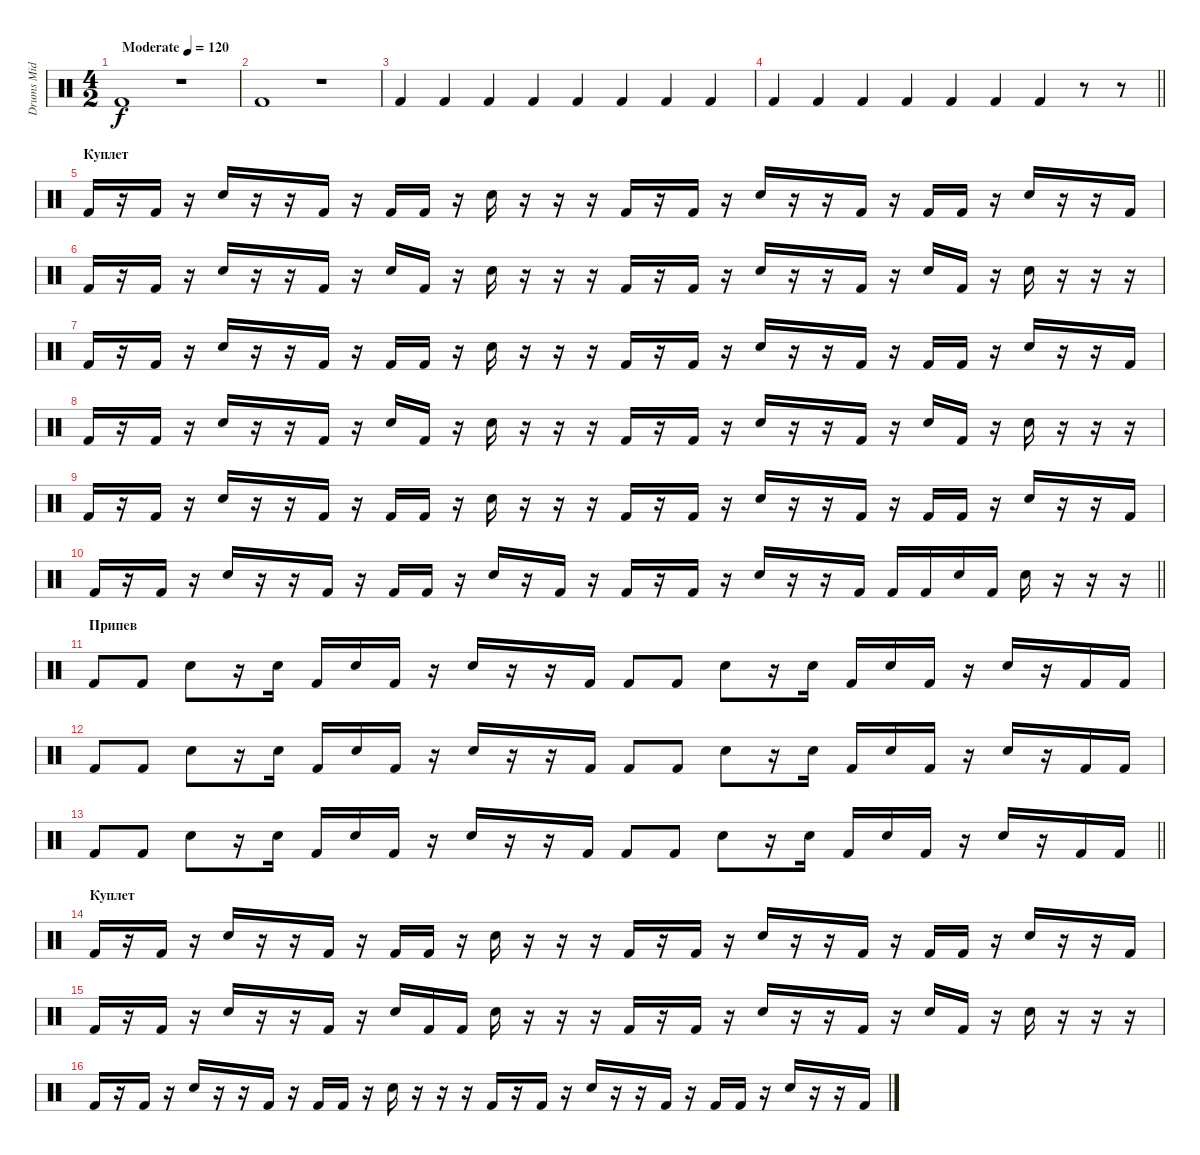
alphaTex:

\track ("Drums Mid" "Drums Mid") {instrument percussion}
\staff {score}
\articulation defaults
\ts (4 2)
\tempo (120 "Moderate")
\clef neutral
\ks c "Kick (hit) 2".1{dy f}
r.1 |
"Kick (hit) 2".1 r.1 |
"Kick (hit) 2".4 "Kick (hit) 2".4 "Kick (hit) 2".4 "Kick (hit) 2".4 "Kick (hit) 2".4 "Kick (hit) 2".4 "Kick (hit) 2".4 "Kick (hit) 2".4 |
\barLineRight lightlight "Kick (hit) 2".4 "Kick (hit) 2".4 "Kick (hit) 2".4 "Kick (hit) 2".4 "Kick (hit) 2".4 "Kick (hit) 2".4 "Kick (hit) 2".4
r.8 r.8 |
\section ("" "Куплет")
"Kick (hit) 2".16 r.16 "Kick (hit) 2".16 r.16 "Snare (hit) 2".16 r.16 r.16 "Kick (hit) 2".16 r.16 "Kick (hit) 2".16 "Kick (hit) 2".16 r.16 "Snare (hit) 2".16 r.16 r.16 r.16 "Kick (hit) 2".16 r.16 "Kick (hit) 2".16 r.16 "Snare (hit) 2".16 r.16 r.16 "Kick (hit) 2".16 r.16 "Kick (hit) 2".16 "Kick (hit) 2".16 r.16 "Snare (hit) 2".16 r.16 r.16 "Kick (hit) 2".16 |
"Kick (hit) 2".16 r.16 "Kick (hit) 2".16 r.16 "Snare (hit) 2".16 r.16 r.16 "Kick (hit) 2".16 r.16 "Snare (hit) 2".16 "Kick (hit) 2".16 r.16 "Snare (hit) 2".16 r.16 r.16 r.16 "Kick (hit) 2".16 r.16 "Kick (hit) 2".16 r.16 "Snare (hit) 2".16 r.16 r.16 "Kick (hit) 2".16 r.16 "Snare (hit) 2".16 "Kick (hit) 2".16 r.16 "Snare (hit) 2".16 r.16 r.16 r.16 |
"Kick (hit) 2".16 r.16 "Kick (hit) 2".16 r.16 "Snare (hit) 2".16 r.16 r.16 "Kick (hit) 2".16 r.16 "Kick (hit) 2".16 "Kick (hit) 2".16 r.16 "Snare (hit) 2".16 r.16 r.16 r.16 "Kick (hit) 2".16 r.16 "Kick (hit) 2".16 r.16 "Snare (hit) 2".16 r.16 r.16 "Kick (hit) 2".16 r.16 "Kick (hit) 2".16 "Kick (hit) 2".16 r.16 "Snare (hit) 2".16 r.16 r.16 "Kick (hit) 2".16 |
"Kick (hit) 2".16 r.16 "Kick (hit) 2".16 r.16 "Snare (hit) 2".16 r.16 r.16 "Kick (hit) 2".16 r.16 "Snare (hit) 2".16 "Kick (hit) 2".16 r.16 "Snare (hit) 2".16 r.16 r.16 r.16 "Kick (hit) 2".16 r.16 "Kick (hit) 2".16 r.16 "Snare (hit) 2".16 r.16 r.16 "Kick (hit) 2".16 r.16 "Snare (hit) 2".16 "Kick (hit) 2".16 r.16 "Snare (hit) 2".16 r.16 r.16 r.16 |
"Kick (hit) 2".16 r.16 "Kick (hit) 2".16 r.16 "Snare (hit) 2".16 r.16 r.16 "Kick (hit) 2".16 r.16 "Kick (hit) 2".16 "Kick (hit) 2".16 r.16 "Snare (hit) 2".16 r.16 r.16 r.16 "Kick (hit) 2".16 r.16 "Kick (hit) 2".16 r.16 "Snare (hit) 2".16 r.16 r.16 "Kick (hit) 2".16 r.16 "Kick (hit) 2".16 "Kick (hit) 2".16 r.16 "Snare (hit) 2".16 r.16 r.16 "Kick (hit) 2".16 |
\barLineRight lightlight "Kick (hit) 2".16
r.16 "Kick (hit) 2".16 r.16 "Snare (hit) 2".16 r.16 r.16 "Kick (hit) 2".16 r.16 "Kick (hit) 2".16 "Kick (hit) 2".16 r.16 "Snare (hit) 2".16 r.16 "Kick (hit) 2".16 r.16 "Kick (hit) 2".16 r.16 "Kick (hit) 2".16 r.16 "Snare (hit) 2".16 r.16 r.16 "Kick (hit) 2".16 "Kick (hit) 2".16 "Kick (hit) 2".16 "Snare (hit) 2".16 "Kick (hit) 2".16 "Snare (hit) 2".16 r.16 r.16 r.16 |
\section ("" "Припев")
"Kick (hit) 2".8 "Kick (hit) 2".8 "Snare (hit) 2".8 r.16 "Snare (hit) 2".16 "Kick (hit) 2".16 "Snare (hit) 2".16 "Kick (hit) 2".16 r.16 "Snare (hit) 2".16 r.16 r.16 "Kick (hit) 2".16 "Kick (hit) 2".8 "Kick (hit) 2".8 "Snare (hit) 2".8 r.16 "Snare (hit) 2".16 "Kick (hit) 2".16 "Snare (hit) 2".16 "Kick (hit) 2".16 r.16 "Snare (hit) 2".16 r.16 "Kick (hit) 2".16 "Kick (hit) 2".16 |
"Kick (hit) 2".8 "Kick (hit) 2".8 "Snare (hit) 2".8 r.16 "Snare (hit) 2".16 "Kick (hit) 2".16 "Snare (hit) 2".16 "Kick (hit) 2".16 r.16 "Snare (hit) 2".16 r.16 r.16 "Kick (hit) 2".16 "Kick (hit) 2".8 "Kick (hit) 2".8 "Snare (hit) 2".8 r.16 "Snare (hit) 2".16 "Kick (hit) 2".16 "Snare (hit) 2".16 "Kick (hit) 2".16 r.16 "Snare (hit) 2".16 r.16 "Kick (hit) 2".16 "Kick (hit) 2".16 |
\barLineRight lightlight "Kick (hit) 2".8 "Kick (hit) 2".8 "Snare (hit) 2".8
r.16 "Snare (hit) 2".16 "Kick (hit) 2".16 "Snare (hit) 2".16 "Kick (hit) 2".16 r.16 "Snare (hit) 2".16 r.16 r.16 "Kick (hit) 2".16 "Kick (hit) 2".8 "Kick (hit) 2".8 "Snare (hit) 2".8 r.16 "Snare (hit) 2".16 "Kick (hit) 2".16 "Snare (hit) 2".16 "Kick (hit) 2".16 r.16 "Snare (hit) 2".16 r.16 "Kick (hit) 2".16 "Kick (hit) 2".16 |
\section ("" "Куплет")
"Kick (hit) 2".16 r.16 "Kick (hit) 2".16 r.16 "Snare (hit) 2".16 r.16 r.16 "Kick (hit) 2".16 r.16 "Kick (hit) 2".16 "Kick (hit) 2".16 r.16 "Snare (hit) 2".16 r.16 r.16 r.16 "Kick (hit) 2".16 r.16 "Kick (hit) 2".16 r.16 "Snare (hit) 2".16 r.16 r.16 "Kick (hit) 2".16 r.16 "Kick (hit) 2".16 "Kick (hit) 2".16 r.16 "Snare (hit) 2".16 r.16 r.16 "Kick (hit) 2".16 |
"Kick (hit) 2".16 r.16 "Kick (hit) 2".16 r.16 "Snare (hit) 2".16 r.16 r.16 "Kick (hit) 2".16 r.16 "Snare (hit) 2".16 "Kick (hit) 2".16 "Kick (hit) 2".16 "Snare (hit) 2".16 r.16 r.16 r.16 "Kick (hit) 2".16 r.16 "Kick (hit) 2".16 r.16 "Snare (hit) 2".16 r.16 r.16 "Kick (hit) 2".16 r.16 "Snare (hit) 2".16 "Kick (hit) 2".16 r.16 "Snare (hit) 2".16 r.16 r.16 r.16 |
"Kick (hit) 2".16 r.16 "Kick (hit) 2".16 r.16 "Snare (hit) 2".16 r.16 r.16 "Kick (hit) 2".16 r.16 "Kick (hit) 2".16 "Kick (hit) 2".16 r.16 "Snare (hit) 2".16 r.16 r.16 r.16 "Kick (hit) 2".16 r.16 "Kick (hit) 2".16 r.16 "Snare (hit) 2".16 r.16 r.16 "Kick (hit) 2".16 r.16 "Kick (hit) 2".16 "Kick (hit) 2".16 r.16 "Snare (hit) 2".16 r.16 r.16 "Kick (hit) 2".16
